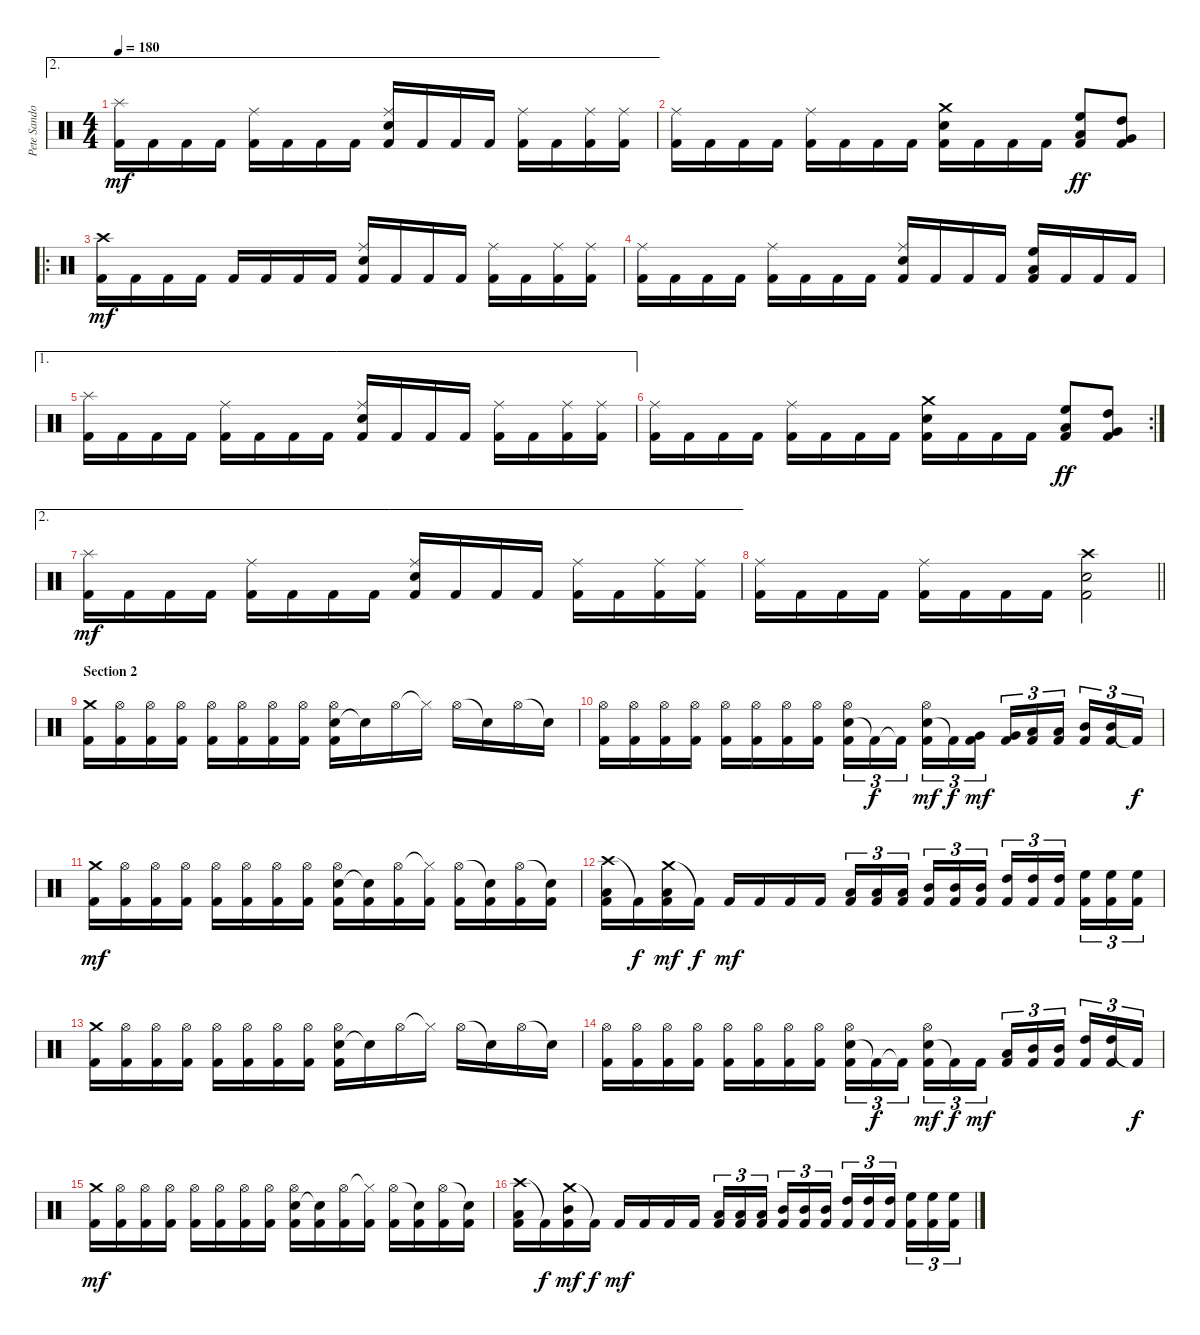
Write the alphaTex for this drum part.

\track ("Pete Sandoval" "Pete Sando") {instrument percussion}
\staff {score}
\articulation defaults
\ae 2
\ts (4 4)
\tempo 180
\clef neutral
\ks c
("Splash (hit)" "Kick (hit) 2").16{dy mf} "Kick (hit) 2".16 "Kick (hit) 2".16 "Kick (hit) 2".16 ("Ride (middle)" "Kick (hit) 2").16 "Kick (hit) 2".16 "Kick (hit) 2".16 "Kick (hit) 2".16 ("Snare (hit) 2" "Ride (middle)" "Kick (hit) 2").16 "Kick (hit) 2".16 "Kick (hit) 2".16 "Kick (hit) 2".16 ("Ride (middle)" "Kick (hit) 2").16 "Kick (hit) 2".16 ("Ride (middle)" "Kick (hit) 2").16 ("Ride (middle)" "Kick (hit) 2").16 |
("Ride (middle)" "Kick (hit) 2").16 "Kick (hit) 2".16 "Kick (hit) 2".16 "Kick (hit) 2".16 ("Ride (middle)" "Kick (hit) 2").16 "Kick (hit) 2".16 "Kick (hit) 2".16 "Kick (hit) 2".16 ("Snare (hit) 2" "Crash medium (hit)" "Kick (hit) 2").16 "Kick (hit) 2".16 "Kick (hit) 2".16 "Kick (hit) 2".16 ("High Floor Tom (hit)" "Low Tom (hit)" "Kick (hit) 2").8{dy ff} ("High Tom (hit)" "Very Low Tom (hit)" "Kick (hit) 2").8 |
\ro
("Crash high (hit)" "Kick (hit) 2").16{dy mf} "Kick (hit) 2".16 "Kick (hit) 2".16 "Kick (hit) 2".16 "Kick (hit) 2".16 "Kick (hit) 2".16 "Kick (hit) 2".16 "Kick (hit) 2".16 ("Snare (hit) 2" "Ride (middle)" "Kick (hit) 2").16 "Kick (hit) 2".16 "Kick (hit) 2".16 "Kick (hit) 2".16 ("Ride (middle)" "Kick (hit) 2").16 "Kick (hit) 2".16 ("Ride (middle)" "Kick (hit) 2").16 ("Ride (middle)" "Kick (hit) 2").16 |
("Ride (middle)" "Kick (hit) 2").16 "Kick (hit) 2".16 "Kick (hit) 2".16 "Kick (hit) 2".16 ("Ride (middle)" "Kick (hit) 2").16 "Kick (hit) 2".16 "Kick (hit) 2".16 "Kick (hit) 2".16 ("Snare (hit) 2" "Ride (middle)" "Kick (hit) 2").16 "Kick (hit) 2".16 "Kick (hit) 2".16 "Kick (hit) 2".16 ("High Floor Tom (hit)" "Low Tom (hit)" "Kick (hit) 2").16 "Kick (hit) 2".16 "Kick (hit) 2".16 "Kick (hit) 2".16 |
\ae 1
("Splash (hit)" "Kick (hit) 2").16 "Kick (hit) 2".16 "Kick (hit) 2".16 "Kick (hit) 2".16 ("Ride (middle)" "Kick (hit) 2").16 "Kick (hit) 2".16 "Kick (hit) 2".16 "Kick (hit) 2".16 ("Snare (hit) 2" "Ride (middle)" "Kick (hit) 2").16 "Kick (hit) 2".16 "Kick (hit) 2".16 "Kick (hit) 2".16 ("Ride (middle)" "Kick (hit) 2").16 "Kick (hit) 2".16 ("Ride (middle)" "Kick (hit) 2").16 ("Ride (middle)" "Kick (hit) 2").16 |
\rc 2
("Ride (middle)" "Kick (hit) 2").16 "Kick (hit) 2".16 "Kick (hit) 2".16 "Kick (hit) 2".16 ("Ride (middle)" "Kick (hit) 2").16 "Kick (hit) 2".16 "Kick (hit) 2".16 "Kick (hit) 2".16 ("Snare (hit) 2" "Crash medium (hit)" "Kick (hit) 2").16 "Kick (hit) 2".16 "Kick (hit) 2".16 "Kick (hit) 2".16 ("High Floor Tom (hit)" "Low Tom (hit)" "Kick (hit) 2").8{dy ff} ("High Tom (hit)" "Very Low Tom (hit)" "Kick (hit) 2").8 |
\ae 2
("Splash (hit)" "Kick (hit) 2").16{dy mf} "Kick (hit) 2".16 "Kick (hit) 2".16 "Kick (hit) 2".16 ("Ride (middle)" "Kick (hit) 2").16 "Kick (hit) 2".16 "Kick (hit) 2".16 "Kick (hit) 2".16 ("Snare (hit) 2" "Ride (middle)" "Kick (hit) 2").16 "Kick (hit) 2".16 "Kick (hit) 2".16 "Kick (hit) 2".16 ("Ride (middle)" "Kick (hit) 2").16 "Kick (hit) 2".16 ("Ride (middle)" "Kick (hit) 2").16 ("Ride (middle)" "Kick (hit) 2").16 |
\barLineRight lightlight
("Ride (middle)" "Kick (hit) 2").16 "Kick (hit) 2".16 "Kick (hit) 2".16 "Kick (hit) 2".16 ("Ride (middle)" "Kick (hit) 2").16 "Kick (hit) 2".16 "Kick (hit) 2".16 "Kick (hit) 2".16 ("Snare (hit) 2" "Crash high (hit)" "Kick (hit) 2").2 |
\section ("" "Section 2")
("Crash medium (hit)" "Kick (hit) 2").16 ("Hi-Hat (open)" "Kick (hit) 2").16 ("Hi-Hat (open)" "Kick (hit) 2").16 ("Hi-Hat (open)" "Kick (hit) 2").16 ("Hi-Hat (open)" "Kick (hit) 2").16 ("Hi-Hat (open)" "Kick (hit) 2").16 ("Hi-Hat (open)" "Kick (hit) 2").16 ("Hi-Hat (open)" "Kick (hit) 2").16 ("Snare (hit) 2" "Hi-Hat (open)" "Kick (hit) 2").16 "Snare (hit)"{t}.16 "Hi-Hat (open)".16 "Hi-Hat (closed)"{t}.16 "Hi-Hat (open)".16 "Snare (hit)"{t}.16 "Hi-Hat (open)".16 "Snare (hit)"{t}.16 |
("Hi-Hat (open)" "Kick (hit) 2").16 ("Hi-Hat (open)" "Kick (hit) 2").16 ("Hi-Hat (open)" "Kick (hit) 2").16 ("Hi-Hat (open)" "Kick (hit) 2").16 ("Hi-Hat (open)" "Kick (hit) 2").16 ("Hi-Hat (open)" "Kick (hit) 2").16 ("Hi-Hat (open)" "Kick (hit) 2").16 ("Hi-Hat (open)" "Kick (hit) 2").16 ("Snare (hit) 2" "Hi-Hat (open)" "Kick (hit) 2").16{tu (3 2)} "Kick (hit) 2"{t}.16{tu (3 2) dy f} "Kick (hit) 2"{t}.16{tu (3 2) beam splitsecondary} ("Snare (hit) 2" "Hi-Hat (open)" "Kick (hit) 2").16{tu (3 2) dy mf} "Kick (hit) 2"{t}.16{tu (3 2) dy f} ("Very Low Tom (hit)" "Kick (hit) 2").16{tu (3 2) dy mf} ("Very Low Tom (hit)" "Kick (hit) 2").16{tu (3 2)} ("Low Tom (hit)" "Kick (hit) 2").16{tu (3 2)} ("Low Tom (hit)" "Kick (hit) 2").16{tu (3 2) beam splitsecondary} ("Mid Tom (hit)" "Kick (hit) 2").16{tu (3 2)} ("Mid Tom (hit)" "Kick (hit) 2").16{tu (3 2)} "Kick (hit) 2"{t}.16{tu (3 2) dy f} |
("Crash medium (hit)" "Kick (hit) 2").16{dy mf} ("Hi-Hat (open)" "Kick (hit) 2").16 ("Hi-Hat (open)" "Kick (hit) 2").16 ("Hi-Hat (open)" "Kick (hit) 2").16 ("Hi-Hat (open)" "Kick (hit) 2").16 ("Hi-Hat (open)" "Kick (hit) 2").16 ("Hi-Hat (open)" "Kick (hit) 2").16 ("Hi-Hat (open)" "Kick (hit) 2").16 ("Snare (hit) 2" "Hi-Hat (open)" "Kick (hit) 2").16 ("Snare (hit)"{t} "Kick (hit) 2").16 ("Hi-Hat (open)" "Kick (hit) 2").16 ("Hi-Hat (closed)"{t} "Kick (hit) 2").16 ("Hi-Hat (open)" "Kick (hit) 2").16 ("Snare (hit)"{t} "Kick (hit) 2").16 ("Hi-Hat (open)" "Kick (hit) 2").16 ("Snare (hit)"{t} "Kick (hit) 2").16 |
("Crash high (hit)" "Low Tom (hit)" "Kick (hit) 2").16 "Kick (hit) 2"{t}.16{dy f} ("Crash medium (hit)" "Low Tom (hit)" "Kick (hit) 2").16{dy mf} "Kick (hit) 2"{t}.16{dy f} "Kick (hit) 2".16{dy mf} "Kick (hit) 2".16 "Kick (hit) 2".16 "Kick (hit) 2".16 ("Low Tom (hit)" "Kick (hit) 2").16{tu (3 2)} ("Low Tom (hit)" "Kick (hit) 2").16{tu (3 2)} ("Low Tom (hit)" "Kick (hit) 2").16{tu (3 2) beam splitsecondary} ("Mid Tom (hit)" "Kick (hit) 2").16{tu (3 2)} ("Mid Tom (hit)" "Kick (hit) 2").16{tu (3 2)} ("Mid Tom (hit)" "Kick (hit) 2").16{tu (3 2)} ("High Tom (hit)" "Kick (hit) 2").16{tu (3 2)} ("High Tom (hit)" "Kick (hit) 2").16{tu (3 2)} ("High Tom (hit)" "Kick (hit) 2").16{tu (3 2) beam splitsecondary} ("High Floor Tom (hit)" "Kick (hit) 2").16{tu (3 2)} ("High Floor Tom (hit)" "Kick (hit) 2").16{tu (3 2)} ("High Floor Tom (hit)" "Kick (hit) 2").16{tu (3 2)} |
("Crash medium (hit)" "Kick (hit) 2").16 ("Hi-Hat (open)" "Kick (hit) 2").16 ("Hi-Hat (open)" "Kick (hit) 2").16 ("Hi-Hat (open)" "Kick (hit) 2").16 ("Hi-Hat (open)" "Kick (hit) 2").16 ("Hi-Hat (open)" "Kick (hit) 2").16 ("Hi-Hat (open)" "Kick (hit) 2").16 ("Hi-Hat (open)" "Kick (hit) 2").16 ("Snare (hit) 2" "Hi-Hat (open)" "Kick (hit) 2").16 "Snare (hit)"{t}.16 "Hi-Hat (open)".16 "Hi-Hat (closed)"{t}.16 "Hi-Hat (open)".16 "Snare (hit)"{t}.16 "Hi-Hat (open)".16 "Snare (hit)"{t}.16 |
("Hi-Hat (open)" "Kick (hit) 2").16 ("Hi-Hat (open)" "Kick (hit) 2").16 ("Hi-Hat (open)" "Kick (hit) 2").16 ("Hi-Hat (open)" "Kick (hit) 2").16 ("Hi-Hat (open)" "Kick (hit) 2").16 ("Hi-Hat (open)" "Kick (hit) 2").16 ("Hi-Hat (open)" "Kick (hit) 2").16 ("Hi-Hat (open)" "Kick (hit) 2").16 ("Snare (hit) 2" "Hi-Hat (open)" "Kick (hit) 2").16{tu (3 2)} "Kick (hit) 2"{t}.16{tu (3 2) dy f} "Kick (hit) 2"{t}.16{tu (3 2) beam splitsecondary} ("Snare (hit) 2" "Hi-Hat (open)" "Kick (hit) 2").16{tu (3 2) dy mf} "Kick (hit) 2"{t}.16{tu (3 2) dy f} "Kick (hit) 2".16{tu (3 2) dy mf} ("Low Tom (hit)" "Kick (hit) 2").16{tu (3 2)} ("Mid Tom (hit)" "Kick (hit) 2").16{tu (3 2)} ("Mid Tom (hit)" "Kick (hit) 2").16{tu (3 2) beam splitsecondary} ("High Tom (hit)" "Kick (hit) 2").16{tu (3 2)} ("High Tom (hit)" "Kick (hit) 2").16{tu (3 2)} "Kick (hit) 2"{t}.16{tu (3 2) dy f} |
("Crash medium (hit)" "Kick (hit) 2").16{dy mf} ("Hi-Hat (open)" "Kick (hit) 2").16 ("Hi-Hat (open)" "Kick (hit) 2").16 ("Hi-Hat (open)" "Kick (hit) 2").16 ("Hi-Hat (open)" "Kick (hit) 2").16 ("Hi-Hat (open)" "Kick (hit) 2").16 ("Hi-Hat (open)" "Kick (hit) 2").16 ("Hi-Hat (open)" "Kick (hit) 2").16 ("Snare (hit) 2" "Hi-Hat (open)" "Kick (hit) 2").16 ("Snare (hit)"{t} "Kick (hit) 2").16 ("Hi-Hat (open)" "Kick (hit) 2").16 ("Hi-Hat (closed)"{t} "Kick (hit) 2").16 ("Hi-Hat (open)" "Kick (hit) 2").16 ("Snare (hit)"{t} "Kick (hit) 2").16 ("Hi-Hat (open)" "Kick (hit) 2").16 ("Snare (hit)"{t} "Kick (hit) 2").16 |
("Crash high (hit)" "Low Tom (hit)" "Kick (hit) 2").16 "Kick (hit) 2"{t}.16{dy f} ("Crash medium (hit)" "Mid Tom (hit)" "Kick (hit) 2").16{dy mf} "Kick (hit) 2"{t}.16{dy f} "Kick (hit) 2".16{dy mf} "Kick (hit) 2".16 "Kick (hit) 2".16 "Kick (hit) 2".16 ("Low Tom (hit)" "Kick (hit) 2").16{tu (3 2)} ("Low Tom (hit)" "Kick (hit) 2").16{tu (3 2)} ("Low Tom (hit)" "Kick (hit) 2").16{tu (3 2) beam splitsecondary} ("Mid Tom (hit)" "Kick (hit) 2").16{tu (3 2)} ("Mid Tom (hit)" "Kick (hit) 2").16{tu (3 2)} ("Mid Tom (hit)" "Kick (hit) 2").16{tu (3 2)} ("High Tom (hit)" "Kick (hit) 2").16{tu (3 2)} ("High Tom (hit)" "Kick (hit) 2").16{tu (3 2)} ("High Tom (hit)" "Kick (hit) 2").16{tu (3 2) beam splitsecondary} ("High Floor Tom (hit)" "Kick (hit) 2").16{tu (3 2)} ("High Floor Tom (hit)" "Kick (hit) 2").16{tu (3 2)} ("High Floor Tom (hit)" "Kick (hit) 2").16{tu (3 2)}
